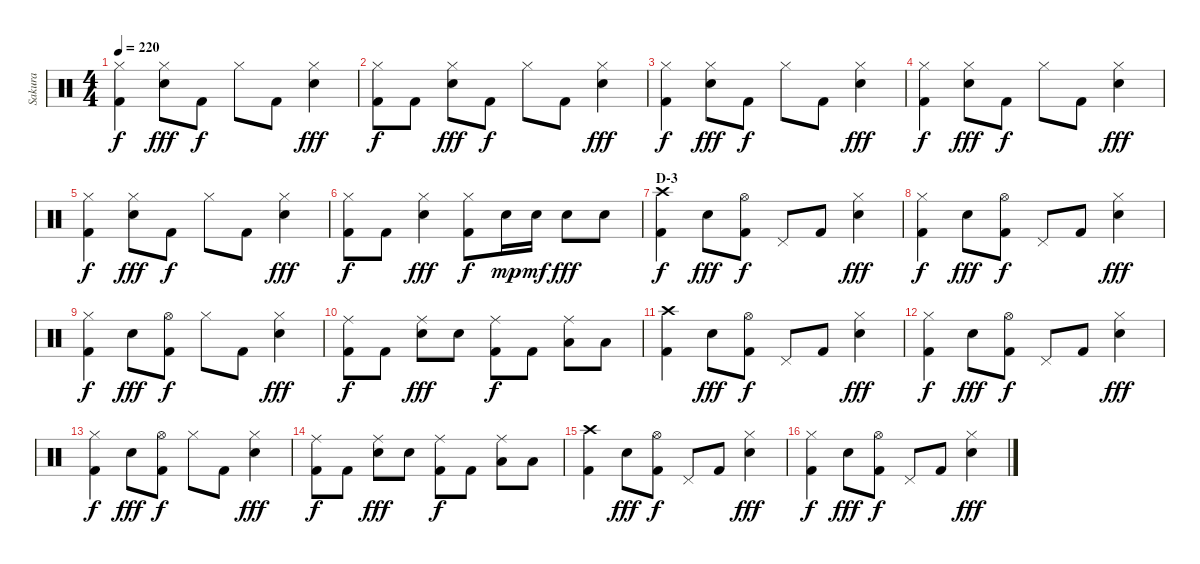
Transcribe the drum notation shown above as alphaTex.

\track ("Sakura" "Sakura") {instrument percussion}
\staff {score}
\articulation defaults
\ts (4 4)
\tempo 220
\clef neutral
\ks c
("Hi-Hat (closed)" "Kick (hit) 2").4{dy f} ("Hi-Hat (closed)" "Electric Snare (hit)").8{dy fff} "Kick (hit) 2".8{dy f} "Hi-Hat (closed)".8 "Kick (hit) 2".8 ("Hi-Hat (closed)" "Electric Snare (hit)").4{dy fff} |
("Hi-Hat (closed)" "Kick (hit) 2").8{dy f} "Kick (hit) 2".8 ("Hi-Hat (closed)" "Electric Snare (hit)").8{dy fff} "Kick (hit) 2".8{dy f} "Hi-Hat (closed)".8 "Kick (hit) 2".8 ("Hi-Hat (closed)" "Electric Snare (hit)").4{dy fff} |
("Hi-Hat (closed)" "Kick (hit) 2").4{dy f} ("Hi-Hat (closed)" "Electric Snare (hit)").8{dy fff} "Kick (hit) 2".8{dy f} "Hi-Hat (closed)".8 "Kick (hit) 2".8 ("Hi-Hat (closed)" "Electric Snare (hit)").4{dy fff} |
("Hi-Hat (closed)" "Kick (hit) 2").4{dy f} ("Hi-Hat (closed)" "Electric Snare (hit)").8{dy fff} "Kick (hit) 2".8{dy f} "Hi-Hat (closed)".8 "Kick (hit) 2".8 ("Hi-Hat (closed)" "Electric Snare (hit)").4{dy fff} |
("Hi-Hat (closed)" "Kick (hit) 2").4{dy f} ("Hi-Hat (closed)" "Electric Snare (hit)").8{dy fff} "Kick (hit) 2".8{dy f} "Hi-Hat (closed)".8 "Kick (hit) 2".8 ("Hi-Hat (closed)" "Electric Snare (hit)").4{dy fff} |
("Hi-Hat (closed)" "Kick (hit) 2").8{dy f} "Kick (hit) 2".8 ("Hi-Hat (closed)" "Electric Snare (hit)").4{dy fff} ("Hi-Hat (closed)" "Kick (hit) 2").8{dy f} "Electric Snare (hit)".16{dy mp} "Electric Snare (hit)".16{dy mf} "Electric Snare (hit)".8{dy fff} "Electric Snare (hit)".8 |
\section ("" "D-3")
("Crash high (hit)" "Kick (hit) 2").4{dy f} "Electric Snare (hit)".8{dy fff} ("Hi-Hat (open)" "Kick (hit) 2").8{dy f} "Pedal Hi-Hat (hit)".8 "Kick (hit) 2".8 ("Hi-Hat (closed)" "Electric Snare (hit)").4{dy fff} |
("Hi-Hat (closed)" "Kick (hit) 2").4{dy f} "Electric Snare (hit)".8{dy fff} ("Hi-Hat (open)" "Kick (hit) 2").8{dy f} "Pedal Hi-Hat (hit)".8 "Kick (hit) 2".8 ("Hi-Hat (closed)" "Electric Snare (hit)").4{dy fff} |
("Hi-Hat (closed)" "Kick (hit) 2").4{dy f} "Electric Snare (hit)".8{dy fff} ("Hi-Hat (open)" "Kick (hit) 2").8{dy f} "Hi-Hat (closed)".8 "Kick (hit) 2".8 ("Hi-Hat (closed)" "Electric Snare (hit)").4{dy fff} |
("Ride (middle)" "Kick (hit) 2").8{dy f} "Kick (hit) 2".8 ("Ride (middle)" "Electric Snare (hit)").8{dy fff} "Electric Snare (hit)".8 ("Ride (middle)" "Kick (hit) 2").8{dy f} "Kick (hit) 2".8 ("Ride (middle)" "Low Tom (hit)").8 "Low Tom (hit)".8 |
("Crash high (hit)" "Kick (hit) 2").4 "Electric Snare (hit)".8{dy fff} ("Hi-Hat (open)" "Kick (hit) 2").8{dy f} "Pedal Hi-Hat (hit)".8 "Kick (hit) 2".8 ("Hi-Hat (closed)" "Electric Snare (hit)").4{dy fff} |
("Hi-Hat (closed)" "Kick (hit) 2").4{dy f} "Electric Snare (hit)".8{dy fff} ("Hi-Hat (open)" "Kick (hit) 2").8{dy f} "Pedal Hi-Hat (hit)".8 "Kick (hit) 2".8 ("Hi-Hat (closed)" "Electric Snare (hit)").4{dy fff} |
("Hi-Hat (closed)" "Kick (hit) 2").4{dy f} "Electric Snare (hit)".8{dy fff} ("Hi-Hat (open)" "Kick (hit) 2").8{dy f} "Hi-Hat (closed)".8 "Kick (hit) 2".8 ("Hi-Hat (closed)" "Electric Snare (hit)").4{dy fff} |
("Ride (middle)" "Kick (hit) 2").8{dy f} "Kick (hit) 2".8 ("Ride (middle)" "Electric Snare (hit)").8{dy fff} "Electric Snare (hit)".8 ("Ride (middle)" "Kick (hit) 2").8{dy f} "Kick (hit) 2".8 ("Ride (middle)" "Low Tom (hit)").8 "Low Tom (hit)".8 |
("Crash high (hit)" "Kick (hit) 2").4 "Electric Snare (hit)".8{dy fff} ("Hi-Hat (open)" "Kick (hit) 2").8{dy f} "Pedal Hi-Hat (hit)".8 "Kick (hit) 2".8 ("Hi-Hat (closed)" "Electric Snare (hit)").4{dy fff} |
("Hi-Hat (closed)" "Kick (hit) 2").4{dy f} "Electric Snare (hit)".8{dy fff} ("Hi-Hat (open)" "Kick (hit) 2").8{dy f} "Pedal Hi-Hat (hit)".8 "Kick (hit) 2".8 ("Hi-Hat (closed)" "Electric Snare (hit)").4{dy fff}
